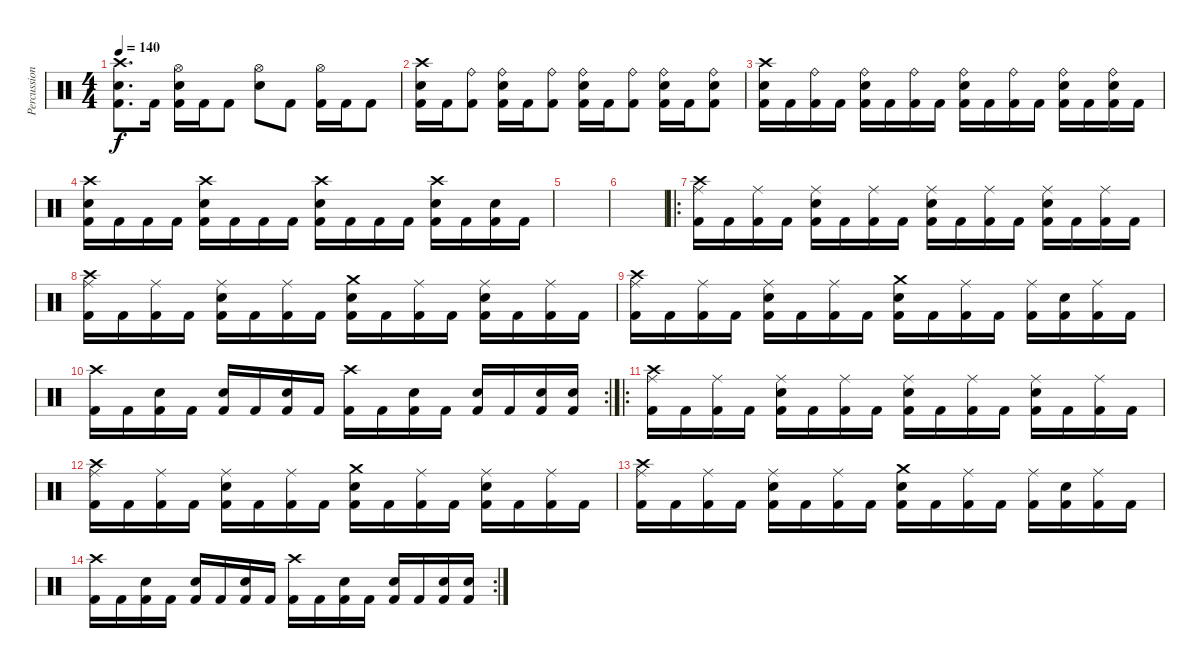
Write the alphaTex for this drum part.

\track ("Percussion" "Percussion") {instrument percussion}
\staff {score}
\articulation defaults
\ts (4 4)
\tempo 140
\clef neutral
\ks c
("Crash high (hit)" "Snare (hit) 2" "Kick (hit) 2").8{d dy f} "Kick (hit) 2".16 ("Hi-Hat (open)" "Snare (hit) 2" "Kick (hit) 2").16 "Kick (hit) 2".16 "Kick (hit) 2".8 ("Hi-Hat (open)" "Snare (hit) 2").8 "Kick (hit) 2".8 ("Hi-Hat (open)" "Kick (hit) 2").16 "Kick (hit) 2".16 "Kick (hit) 2".8 |
("Crash high (hit)" "Snare (hit) 2" "Kick (hit) 2").16 "Kick (hit) 2".16 ("Ride (bell)" "Kick (hit) 2").8 ("Ride (bell)" "Snare (hit) 2" "Kick (hit) 2").16 "Kick (hit) 2".16 ("Ride (bell)" "Kick (hit) 2").8 ("Ride (bell)" "Snare (hit) 2" "Kick (hit) 2").16 "Kick (hit) 2".16 ("Ride (bell)" "Kick (hit) 2").8 ("Ride (bell)" "Snare (hit) 2" "Kick (hit) 2").16 "Kick (hit) 2".16 ("Ride (bell)" "Snare (hit) 2" "Kick (hit) 2").8 |
("Crash high (hit)" "Snare (hit) 2" "Kick (hit) 2").16 "Kick (hit) 2".16 ("Ride (bell)" "Kick (hit) 2").16 "Kick (hit) 2".16 ("Ride (bell)" "Snare (hit) 2" "Kick (hit) 2").16 "Kick (hit) 2".16 ("Ride (bell)" "Kick (hit) 2").16 "Kick (hit) 2".16 ("Ride (bell)" "Snare (hit) 2" "Kick (hit) 2").16 "Kick (hit) 2".16 ("Ride (bell)" "Kick (hit) 2").16 "Kick (hit) 2".16 ("Ride (bell)" "Snare (hit) 2" "Kick (hit) 2").16 "Kick (hit) 2".16 ("Ride (bell)" "Snare (hit) 2" "Kick (hit) 2").16 "Kick (hit) 2".16 |
("Crash high (hit)" "Snare (hit) 2" "Kick (hit) 2").16 "Kick (hit) 2".16 "Kick (hit) 2".16 "Kick (hit) 2".16 ("Crash high (hit)" "Snare (hit) 2" "Kick (hit) 2").16 "Kick (hit) 2".16 "Kick (hit) 2".16 "Kick (hit) 2".16 ("Crash high (hit)" "Snare (hit) 2" "Kick (hit) 2").16 "Kick (hit) 2".16 "Kick (hit) 2".16 "Kick (hit) 2".16 ("Crash high (hit)" "Snare (hit) 2" "Kick (hit) 2").16 "Kick (hit) 2".16 ("Snare (hit) 2" "Kick (hit) 2").16 "Kick (hit) 2".16 |
|
|
\ro
("Crash high (hit)" "Ride (middle)" "Kick (hit) 2").16 "Kick (hit) 2".16 ("Ride (middle)" "Kick (hit) 2").16 "Kick (hit) 2".16 ("Ride (middle)" "Snare (hit) 2" "Kick (hit) 2").16 "Kick (hit) 2".16 ("Ride (middle)" "Kick (hit) 2").16 "Kick (hit) 2".16 ("Ride (middle)" "Snare (hit) 2" "Kick (hit) 2").16 "Kick (hit) 2".16 ("Ride (middle)" "Kick (hit) 2").16 "Kick (hit) 2".16 ("Ride (middle)" "Snare (hit) 2" "Kick (hit) 2").16 "Kick (hit) 2".16 ("Ride (middle)" "Kick (hit) 2").16 "Kick (hit) 2".16 |
("Crash high (hit)" "Ride (middle)" "Kick (hit) 2").16 "Kick (hit) 2".16 ("Ride (middle)" "Kick (hit) 2").16 "Kick (hit) 2".16 ("Ride (middle)" "Snare (hit) 2" "Kick (hit) 2").16 "Kick (hit) 2".16 ("Ride (middle)" "Kick (hit) 2").16 "Kick (hit) 2".16 ("Crash medium (hit)" "Snare (hit) 2" "Kick (hit) 2").16 "Kick (hit) 2".16 ("Ride (middle)" "Kick (hit) 2").16 "Kick (hit) 2".16 ("Ride (middle)" "Snare (hit) 2" "Kick (hit) 2").16 "Kick (hit) 2".16 ("Ride (middle)" "Kick (hit) 2").16 "Kick (hit) 2".16 |
("Crash high (hit)" "Ride (middle)" "Kick (hit) 2").16 "Kick (hit) 2".16 ("Ride (middle)" "Kick (hit) 2").16 "Kick (hit) 2".16 ("Ride (middle)" "Snare (hit) 2" "Kick (hit) 2").16 "Kick (hit) 2".16 ("Ride (middle)" "Kick (hit) 2").16 "Kick (hit) 2".16 ("Crash medium (hit)" "Snare (hit) 2" "Kick (hit) 2").16 "Kick (hit) 2".16 ("Ride (middle)" "Kick (hit) 2").16 "Kick (hit) 2".16 ("Ride (middle)" "Kick (hit) 2").16 ("Snare (hit) 2" "Kick (hit) 2").16 ("Ride (middle)" "Kick (hit) 2").16 "Kick (hit) 2".16 |
\rc 2
("Crash high (hit)" "Kick (hit) 2").16 "Kick (hit) 2".16 ("Snare (hit) 2" "Kick (hit) 2").16 "Kick (hit) 2".16 ("Snare (hit) 2" "Kick (hit) 2").16 "Kick (hit) 2".16 ("Snare (hit) 2" "Kick (hit) 2").16 "Kick (hit) 2".16 ("Crash high (hit)" "Kick (hit) 2").16 "Kick (hit) 2".16 ("Snare (hit) 2" "Kick (hit) 2").16 "Kick (hit) 2".16 ("Snare (hit) 2" "Kick (hit) 2").16 "Kick (hit) 2".16 ("Snare (hit) 2" "Kick (hit) 2").16 ("Snare (hit) 2" "Kick (hit) 2").16 |
\ro
("Crash high (hit)" "Ride (middle)" "Kick (hit) 2").16 "Kick (hit) 2".16 ("Ride (middle)" "Kick (hit) 2").16 "Kick (hit) 2".16 ("Ride (middle)" "Snare (hit) 2" "Kick (hit) 2").16 "Kick (hit) 2".16 ("Ride (middle)" "Kick (hit) 2").16 "Kick (hit) 2".16 ("Ride (middle)" "Snare (hit) 2" "Kick (hit) 2").16 "Kick (hit) 2".16 ("Ride (middle)" "Kick (hit) 2").16 "Kick (hit) 2".16 ("Ride (middle)" "Snare (hit) 2" "Kick (hit) 2").16 "Kick (hit) 2".16 ("Ride (middle)" "Kick (hit) 2").16 "Kick (hit) 2".16 |
("Crash high (hit)" "Ride (middle)" "Kick (hit) 2").16 "Kick (hit) 2".16 ("Ride (middle)" "Kick (hit) 2").16 "Kick (hit) 2".16 ("Ride (middle)" "Snare (hit) 2" "Kick (hit) 2").16 "Kick (hit) 2".16 ("Ride (middle)" "Kick (hit) 2").16 "Kick (hit) 2".16 ("Crash medium (hit)" "Snare (hit) 2" "Kick (hit) 2").16 "Kick (hit) 2".16 ("Ride (middle)" "Kick (hit) 2").16 "Kick (hit) 2".16 ("Ride (middle)" "Snare (hit) 2" "Kick (hit) 2").16 "Kick (hit) 2".16 ("Ride (middle)" "Kick (hit) 2").16 "Kick (hit) 2".16 |
("Crash high (hit)" "Ride (middle)" "Kick (hit) 2").16 "Kick (hit) 2".16 ("Ride (middle)" "Kick (hit) 2").16 "Kick (hit) 2".16 ("Ride (middle)" "Snare (hit) 2" "Kick (hit) 2").16 "Kick (hit) 2".16 ("Ride (middle)" "Kick (hit) 2").16 "Kick (hit) 2".16 ("Crash medium (hit)" "Snare (hit) 2" "Kick (hit) 2").16 "Kick (hit) 2".16 ("Ride (middle)" "Kick (hit) 2").16 "Kick (hit) 2".16 ("Ride (middle)" "Kick (hit) 2").16 ("Snare (hit) 2" "Kick (hit) 2").16 ("Ride (middle)" "Kick (hit) 2").16 "Kick (hit) 2".16 |
\rc 2
("Crash high (hit)" "Kick (hit) 2").16 "Kick (hit) 2".16 ("Snare (hit) 2" "Kick (hit) 2").16 "Kick (hit) 2".16 ("Snare (hit) 2" "Kick (hit) 2").16 "Kick (hit) 2".16 ("Snare (hit) 2" "Kick (hit) 2").16 "Kick (hit) 2".16 ("Crash high (hit)" "Kick (hit) 2").16 "Kick (hit) 2".16 ("Snare (hit) 2" "Kick (hit) 2").16 "Kick (hit) 2".16 ("Snare (hit) 2" "Kick (hit) 2").16 "Kick (hit) 2".16 ("Snare (hit) 2" "Kick (hit) 2").16 ("Snare (hit) 2" "Kick (hit) 2").16
